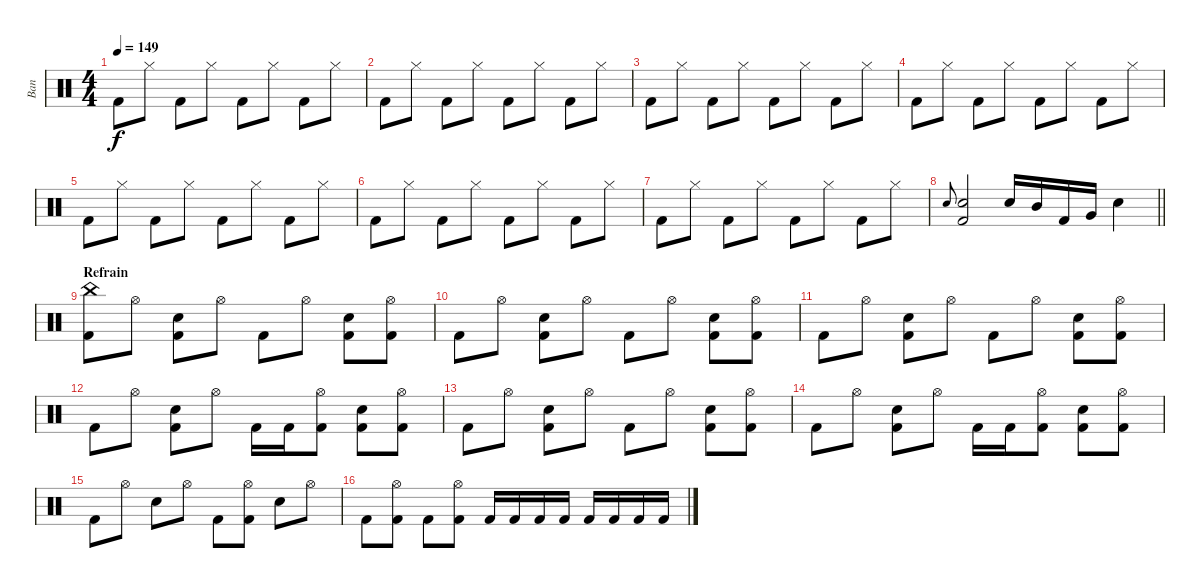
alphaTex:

\track ("Ban" "Ban") {instrument percussion}
\staff {score}
\articulation defaults
\ts (4 4)
\tempo 149
\clef neutral
\ks c "Kick (hit) 2".8{dy f} "Hi-Hat (closed)".8 "Kick (hit) 2".8 "Hi-Hat (closed)".8 "Kick (hit) 2".8 "Hi-Hat (closed)".8 "Kick (hit) 2".8 "Hi-Hat (closed)".8
|
"Kick (hit) 2".8 "Hi-Hat (closed)".8 "Kick (hit) 2".8 "Hi-Hat (closed)".8 "Kick (hit) 2".8 "Hi-Hat (closed)".8 "Kick (hit) 2".8 "Hi-Hat (closed)".8 |
"Kick (hit) 2".8 "Hi-Hat (closed)".8 "Kick (hit) 2".8 "Hi-Hat (closed)".8 "Kick (hit) 2".8 "Hi-Hat (closed)".8 "Kick (hit) 2".8 "Hi-Hat (closed)".8 |
"Kick (hit) 2".8 "Hi-Hat (closed)".8 "Kick (hit) 2".8 "Hi-Hat (closed)".8 "Kick (hit) 2".8 "Hi-Hat (closed)".8 "Kick (hit) 2".8 "Hi-Hat (closed)".8 |
"Kick (hit) 2".8 "Hi-Hat (closed)".8 "Kick (hit) 2".8 "Hi-Hat (closed)".8 "Kick (hit) 2".8 "Hi-Hat (closed)".8 "Kick (hit) 2".8 "Hi-Hat (closed)".8 |
"Kick (hit) 2".8 "Hi-Hat (closed)".8 "Kick (hit) 2".8 "Hi-Hat (closed)".8 "Kick (hit) 2".8 "Hi-Hat (closed)".8 "Kick (hit) 2".8 "Hi-Hat (closed)".8 |
"Kick (hit) 2".8 "Hi-Hat (closed)".8 "Kick (hit) 2".8 "Hi-Hat (closed)".8 "Kick (hit) 2".8 "Hi-Hat (closed)".8 "Kick (hit) 2".8 "Hi-Hat (closed)".8 |
\barLineRight lightlight "Electric Snare (hit)".8{gr onbeat}
("Electric Snare (hit)" "Kick (hit) 2").2 "Electric Snare (hit)".16 "Mid Tom (hit)".16 "Kick (hit) 2".16 "Very Low Tom (hit)".16 "Electric Snare (hit)".4 |
\section ("" "Refrain ")
("China (hit)" "Kick (hit) 2").8 "Hi-Hat (open)".8 ("Electric Snare (hit)" "Kick (hit) 2").8 "Hi-Hat (open)".8 "Kick (hit) 2".8 "Hi-Hat (open)".8 ("Electric Snare (hit)" "Kick (hit) 2").8 ("Hi-Hat (open)" "Kick (hit) 2").8 |
"Kick (hit) 2".8 "Hi-Hat (open)".8 ("Electric Snare (hit)" "Kick (hit) 2").8 "Hi-Hat (open)".8 "Kick (hit) 2".8 "Hi-Hat (open)".8 ("Electric Snare (hit)" "Kick (hit) 2").8 ("Hi-Hat (open)" "Kick (hit) 2").8 |
"Kick (hit) 2".8 "Hi-Hat (open)".8 ("Electric Snare (hit)" "Kick (hit) 2").8 "Hi-Hat (open)".8 "Kick (hit) 2".8 "Hi-Hat (open)".8 ("Electric Snare (hit)" "Kick (hit) 2").8 ("Hi-Hat (open)" "Kick (hit) 2").8 |
"Kick (hit) 2".8 "Hi-Hat (open)".8 ("Electric Snare (hit)" "Kick (hit) 2").8 "Hi-Hat (open)".8 "Kick (hit) 2".16 "Kick (hit) 2".16 ("Hi-Hat (open)" "Kick (hit) 2").8 ("Electric Snare (hit)" "Kick (hit) 2").8 ("Hi-Hat (open)" "Kick (hit) 2").8 |
"Kick (hit) 2".8 "Hi-Hat (open)".8 ("Electric Snare (hit)" "Kick (hit) 2").8 "Hi-Hat (open)".8 "Kick (hit) 2".8 "Hi-Hat (open)".8 ("Electric Snare (hit)" "Kick (hit) 2").8 ("Hi-Hat (open)" "Kick (hit) 2").8 |
"Kick (hit) 2".8 "Hi-Hat (open)".8 ("Electric Snare (hit)" "Kick (hit) 2").8 "Hi-Hat (open)".8 "Kick (hit) 2".16 "Kick (hit) 2".16 ("Hi-Hat (open)" "Kick (hit) 2").8 ("Electric Snare (hit)" "Kick (hit) 2").8 ("Hi-Hat (open)" "Kick (hit) 2").8 |
"Kick (hit) 2".8 "Hi-Hat (open)".8 "Electric Snare (hit)".8 "Hi-Hat (open)".8 "Kick (hit) 2".8 ("Hi-Hat (open)" "Kick (hit) 2").8 "Electric Snare (hit)".8 "Hi-Hat (open)".8 |
"Kick (hit) 2".8 ("Hi-Hat (open)" "Kick (hit) 2").8 "Kick (hit) 2".8 ("Hi-Hat (open)" "Kick (hit) 2").8 "Kick (hit) 2".16 "Kick (hit) 2".16 "Kick (hit) 2".16 "Kick (hit) 2".16 "Kick (hit) 2".16 "Kick (hit) 2".16 "Kick (hit) 2".16 "Kick (hit) 2".16
